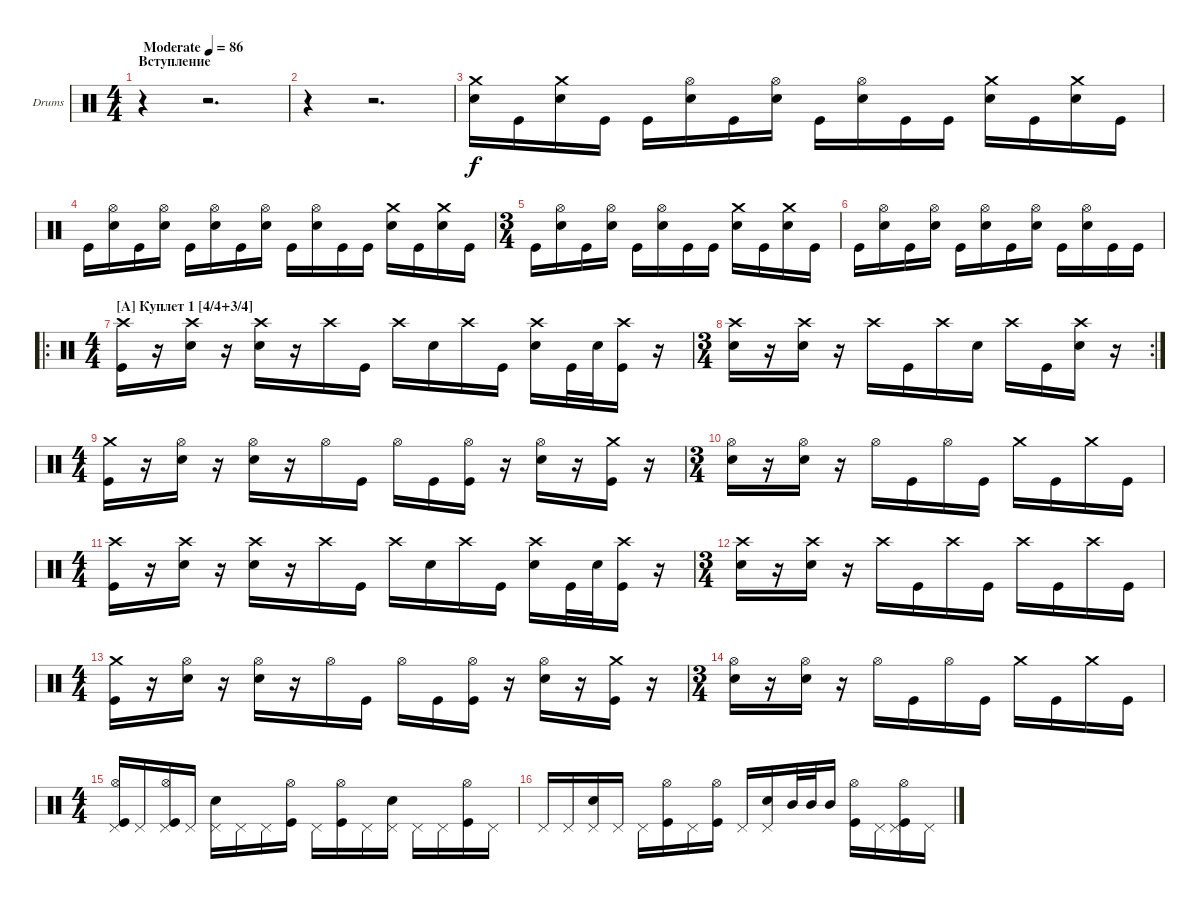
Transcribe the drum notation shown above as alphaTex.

\bracketExtendMode groupsimilarinstruments
\firstSystemTrackNameOrientation horizontal
\otherSystemsTrackNameOrientation horizontal
\track ("Drumkit" "Drums") {instrument percussion}
\staff {score}
\articulation defaults
\ts (4 4)
\beaming (8 2 2 2 2)
\section ("" "Вступление")
\tempo (86 "Moderate")
\clef neutral
\ks c
r.4{dy f} r.2{d} |
r.4 r.2{d} |
("Crash medium (hit)" "Snare (hit) 2").16 "Kick (hit)".16 ("Snare (hit) 2" "Crash medium (hit)").16 "Kick (hit)".16 "Kick (hit)".16 ("Hi-Hat (open)" "Snare (hit) 2").16 "Kick (hit)".16 ("Snare (hit) 2" "Hi-Hat (open)").16 "Kick (hit)".16 ("Snare (hit) 2" "Hi-Hat (open)").16 "Kick (hit)".16 "Kick (hit)".16 ("Snare (hit) 2" "Crash medium (hit)").16 "Kick (hit)".16 ("Snare (hit) 2" "Crash medium (hit)").16 "Kick (hit)".16 |
"Kick (hit)".16 ("Snare (hit) 2" "Hi-Hat (open)").16 "Kick (hit)".16 ("Hi-Hat (open)" "Snare (hit) 2").16 "Kick (hit)".16 ("Hi-Hat (open)" "Snare (hit) 2").16 "Kick (hit)".16 ("Snare (hit) 2" "Hi-Hat (open)").16 "Kick (hit)".16 ("Snare (hit) 2" "Hi-Hat (open)").16 "Kick (hit)".16 "Kick (hit)".16 ("Snare (hit) 2" "Crash medium (hit)").16 "Kick (hit)".16 ("Snare (hit) 2" "Crash medium (hit)").16 "Kick (hit)".16 |
\ts (3 4)
"Kick (hit)".16 ("Hi-Hat (open)" "Snare (hit) 2").16 "Kick (hit)".16 ("Snare (hit) 2" "Hi-Hat (open)").16 "Kick (hit)".16 ("Snare (hit) 2" "Hi-Hat (open)").16 "Kick (hit)".16 "Kick (hit)".16 ("Snare (hit) 2" "Crash medium (hit)").16 "Kick (hit)".16 ("Snare (hit) 2" "Crash medium (hit)").16 "Kick (hit)".16 |
"Kick (hit)".16 ("Snare (hit) 2" "Hi-Hat (open)").16 "Kick (hit)".16 ("Hi-Hat (open)" "Snare (hit) 2").16 "Kick (hit)".16 ("Hi-Hat (open)" "Snare (hit) 2").16 "Kick (hit)".16 ("Snare (hit) 2" "Hi-Hat (open)").16 "Kick (hit)".16 ("Snare (hit) 2" "Hi-Hat (open)").16 "Kick (hit)".16 "Kick (hit)".16 |
\ro
\ts (4 4)
\section ("A" "Куплет 1 [4/4+3/4]")
("Crash high (hit)" "Kick (hit)").16 r.16 ("Crash high (hit)" "Snare (hit) 2").16 r.16 ("Crash high (hit)" "Snare (hit) 2").16 r.16 "Crash high (hit)".16 "Kick (hit)".16 "Crash high (hit)".16 "Snare (hit) 2".16 "Crash high (hit)".16 "Kick (hit)".16 ("Crash high (hit)" "Snare (hit) 2").16 "Kick (hit)".32 "Snare (hit) 2".32 ("Crash high (hit)" "Kick (hit)").16 r.16 |
\rc 2
\ts (3 4)
("Crash high (hit)" "Snare (hit) 2").16 r.16 ("Crash high (hit)" "Snare (hit) 2").16 r.16 "Crash high (hit)".16 "Kick (hit)".16 "Crash high (hit)".16 "Snare (hit) 2".16 "Crash high (hit)".16 "Kick (hit)".16 ("Crash high (hit)" "Snare (hit) 2").16 r.16 |
\ts (4 4)
("Kick (hit)" "Crash medium (hit)").16 r.16 ("Snare (hit) 2" "Hi-Hat (open)").16 r.16 ("Snare (hit) 2" "Hi-Hat (open)").16 r.16 "Hi-Hat (open)".16 "Kick (hit)".16 "Hi-Hat (open)".16 "Kick (hit)".16 ("Kick (hit)" "Hi-Hat (open)").16 r.16 ("Snare (hit) 2" "Hi-Hat (open)").16 r.16 ("Kick (hit)" "Crash medium (hit)").16 r.16 |
\ts (3 4)
("Snare (hit) 2" "Hi-Hat (open)").16 r.16 ("Snare (hit) 2" "Hi-Hat (open)").16 r.16 "Hi-Hat (open)".16 "Kick (hit)".16 "Hi-Hat (open)".16 "Kick (hit)".16 "Crash medium (hit)".16 "Kick (hit)".16 "Crash medium (hit)".16 "Kick (hit)".16 |
\ts (4 4)
("Crash high (hit)" "Kick (hit)").16 r.16 ("Crash high (hit)" "Snare (hit) 2").16 r.16 ("Crash high (hit)" "Snare (hit) 2").16 r.16 "Crash high (hit)".16 "Kick (hit)".16 "Crash high (hit)".16 "Snare (hit) 2".16 "Crash high (hit)".16 "Kick (hit)".16 ("Crash high (hit)" "Snare (hit) 2").16 "Kick (hit)".32 "Snare (hit) 2".32 ("Crash high (hit)" "Kick (hit)").16 r.16 |
\ts (3 4)
("Crash high (hit)" "Snare (hit) 2").16 r.16 ("Crash high (hit)" "Snare (hit) 2").16 r.16 "Crash high (hit)".16 "Kick (hit)".16 "Crash high (hit)".16 "Kick (hit)".16 "Crash high (hit)".16 "Kick (hit)".16 "Crash high (hit)".16 "Kick (hit)".16 |
\ts (4 4)
("Crash medium (hit)" "Kick (hit)").16 r.16 ("Snare (hit) 2" "Hi-Hat (open)").16 r.16 ("Snare (hit) 2" "Hi-Hat (open)").16 r.16 "Hi-Hat (open)".16 "Kick (hit)".16 "Hi-Hat (open)".16 "Kick (hit)".16 ("Kick (hit)" "Hi-Hat (open)").16 r.16 ("Snare (hit) 2" "Hi-Hat (open)").16 r.16 ("Kick (hit)" "Crash medium (hit)").16 r.16 |
\ts (3 4)
("Snare (hit) 2" "Hi-Hat (open)").16 r.16 ("Snare (hit) 2" "Hi-Hat (open)").16 r.16 "Hi-Hat (open)".16 "Kick (hit)".16 "Hi-Hat (open)".16 "Kick (hit)".16 "Crash medium (hit)".16 "Kick (hit)".16 "Crash medium (hit)".16 "Kick (hit)".16 |
\ts (4 4)
("Hi-Hat (open)" "Kick (hit)" "Pedal Hi-Hat (hit)").16 "Pedal Hi-Hat (hit)".16 ("Pedal Hi-Hat (hit)" "Kick (hit)" "Hi-Hat (open)").16 "Pedal Hi-Hat (hit)".16 ("Pedal Hi-Hat (hit)" "Snare (hit) 2").16 "Pedal Hi-Hat (hit)".16 "Pedal Hi-Hat (hit)".16 ("Hi-Hat (open)" "Kick (hit)").16 "Pedal Hi-Hat (hit)".16 ("Hi-Hat (open)" "Kick (hit)").16 "Pedal Hi-Hat (hit)".16 ("Pedal Hi-Hat (hit)" "Snare (hit) 2").16 "Pedal Hi-Hat (hit)".16 "Pedal Hi-Hat (hit)".16 ("Hi-Hat (open)" "Kick (hit)").16 "Pedal Hi-Hat (hit)".16 |
"Pedal Hi-Hat (hit)".16 "Pedal Hi-Hat (hit)".16 ("Pedal Hi-Hat (hit)" "Snare (hit) 2").16 "Pedal Hi-Hat (hit)".16 "Pedal Hi-Hat (hit)".16 ("Hi-Hat (open)" "Kick (hit)").16 "Pedal Hi-Hat (hit)".16 ("Hi-Hat (open)" "Kick (hit)").16 "Pedal Hi-Hat (hit)".16 ("Snare (hit) 2" "Pedal Hi-Hat (hit)").16 "Mid Tom (hit)".32 "Mid Tom (hit)".32 "Mid Tom (hit)".16 ("Hi-Hat (open)" "Kick (hit)").16 "Pedal Hi-Hat (hit)".16 ("Pedal Hi-Hat (hit)" "Kick (hit)" "Hi-Hat (open)").16 "Pedal Hi-Hat (hit)".16
